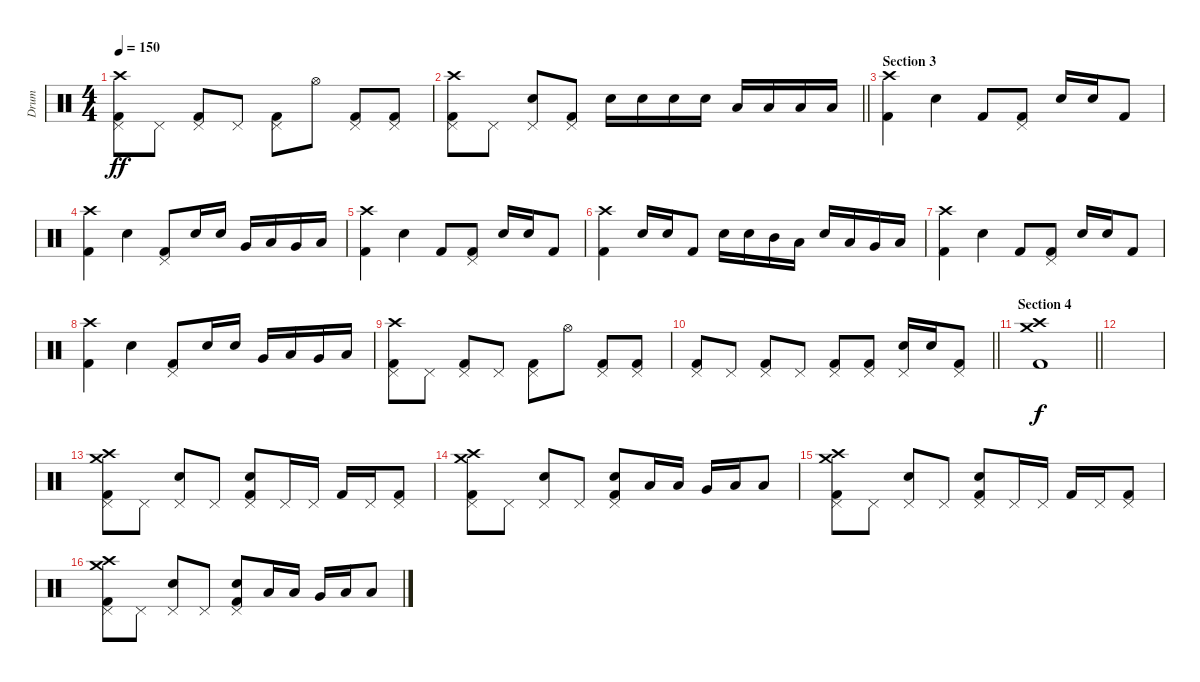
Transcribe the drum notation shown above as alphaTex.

\track ("Drum" "Drum") {instrument percussion}
\staff {score}
\articulation defaults
\ts (4 4)
\tempo 150
\clef neutral
\ks c
("Pedal Hi-Hat (hit)" "Kick (hit) 2" "Crash high (hit)").8{dy ff} "Pedal Hi-Hat (hit)".8 ("Pedal Hi-Hat (hit)" "Kick (hit) 2").8 "Pedal Hi-Hat (hit)".8 ("Pedal Hi-Hat (hit)" "Kick (hit) 2").8 "Hi-Hat (open)".8 ("Pedal Hi-Hat (hit)" "Kick (hit) 2").8 ("Pedal Hi-Hat (hit)" "Kick (hit) 2").8 |
\barLineRight lightlight
("Pedal Hi-Hat (hit)" "Kick (hit) 2" "Crash high (hit)").8 "Pedal Hi-Hat (hit)".8 ("Pedal Hi-Hat (hit)" "Electric Snare (hit)").8 ("Pedal Hi-Hat (hit)" "Kick (hit) 2").8 "Electric Snare (hit)".16 "Electric Snare (hit)".16 "Electric Snare (hit)".16 "Electric Snare (hit)".16 "Low Floor Tom (hit)".16 "Low Floor Tom (hit)".16 "Low Floor Tom (hit)".16 "Low Floor Tom (hit)".16 |
\section ("" "Section 3")
("Kick (hit) 2" "Crash high (hit)").4 "Electric Snare (hit)".4 "Kick (hit) 2".8 ("Kick (hit) 2" "Pedal Hi-Hat (hit)").8 "Electric Snare (hit)".16 "Snare (hit) 2".16 "Kick (hit) 2".8 |
("Kick (hit) 2" "Crash high (hit)").4 "Electric Snare (hit)".4 ("Kick (hit) 2" "Pedal Hi-Hat (hit)").8 "Electric Snare (hit)".16 "Snare (hit) 2".16 "Very Low Tom (hit)".16 "Low Tom (hit)".16 "Very Low Tom (hit)".16 "Low Floor Tom (hit)".16 |
("Kick (hit) 2" "Crash high (hit)").4 "Electric Snare (hit)".4 "Kick (hit) 2".8 ("Kick (hit) 2" "Pedal Hi-Hat (hit)").8 "Electric Snare (hit)".16 "Snare (hit) 2".16 "Kick (hit) 2".8 |
("Kick (hit) 2" "Crash high (hit)").4 "Electric Snare (hit)".16 "Electric Snare (hit)".16 "Kick (hit) 2".8 "Electric Snare (hit)".16 "Electric Snare (hit)".16 "Mid Tom (hit)".16 "Low Tom (hit)".16 "Electric Snare (hit)".16 "Low Tom (hit)".16 "Very Low Tom (hit)".16 "Low Floor Tom (hit)".16 |
("Kick (hit) 2" "Crash high (hit)").4 "Electric Snare (hit)".4 "Kick (hit) 2".8 ("Kick (hit) 2" "Pedal Hi-Hat (hit)").8 "Electric Snare (hit)".16 "Snare (hit) 2".16 "Kick (hit) 2".8 |
("Kick (hit) 2" "Crash high (hit)").4 "Electric Snare (hit)".4 ("Kick (hit) 2" "Pedal Hi-Hat (hit)").8 "Electric Snare (hit)".16 "Snare (hit) 2".16 "Very Low Tom (hit)".16 "Low Tom (hit)".16 "Very Low Tom (hit)".16 "Low Floor Tom (hit)".16 |
("Pedal Hi-Hat (hit)" "Kick (hit) 2" "Crash high (hit)").8 "Pedal Hi-Hat (hit)".8 ("Pedal Hi-Hat (hit)" "Kick (hit) 2").8 "Pedal Hi-Hat (hit)".8 ("Pedal Hi-Hat (hit)" "Kick (hit) 2").8 "Hi-Hat (open)".8 ("Pedal Hi-Hat (hit)" "Kick (hit) 2").8 ("Pedal Hi-Hat (hit)" "Kick (hit) 2").8 |
\barLineRight lightlight
("Pedal Hi-Hat (hit)" "Kick (hit) 2").8 "Pedal Hi-Hat (hit)".8 ("Pedal Hi-Hat (hit)" "Kick (hit) 2").8 "Pedal Hi-Hat (hit)".8 ("Pedal Hi-Hat (hit)" "Kick (hit) 2").8 ("Kick (hit) 2" "Pedal Hi-Hat (hit)").8 ("Electric Snare (hit)" "Pedal Hi-Hat (hit)").16 "Electric Snare (hit)".16 ("Kick (hit) 2" "Pedal Hi-Hat (hit)").8 |
\section ("" "Section 4")
\barLineRight lightlight
("Crash high (hit)" "Crash medium (hit)" "Kick (hit) 2").1{dy f} |
|
("Pedal Hi-Hat (hit)" "Kick (hit) 2" "Crash high (hit)" "Crash medium (hit)").8 "Pedal Hi-Hat (hit)".8 ("Pedal Hi-Hat (hit)" "Electric Snare (hit)").8 "Pedal Hi-Hat (hit)".8 ("Pedal Hi-Hat (hit)" "Electric Snare (hit)" "Kick (hit) 2").8 "Pedal Hi-Hat (hit)".16 "Pedal Hi-Hat (hit)".16 "Kick (hit) 2".16 "Pedal Hi-Hat (hit)".16 ("Pedal Hi-Hat (hit)" "Kick (hit) 2").8 |
("Pedal Hi-Hat (hit)" "Kick (hit) 2" "Crash high (hit)" "Crash medium (hit)").8 "Pedal Hi-Hat (hit)".8 ("Pedal Hi-Hat (hit)" "Electric Snare (hit)").8 "Pedal Hi-Hat (hit)".8 ("Pedal Hi-Hat (hit)" "Electric Snare (hit)" "Kick (hit) 2").8 "Low Tom (hit)".16 "Low Tom (hit)".16 "Very Low Tom (hit)".16 "Low Floor Tom (hit)".16 "Low Floor Tom (hit)".8 |
("Pedal Hi-Hat (hit)" "Kick (hit) 2" "Crash high (hit)" "Crash medium (hit)").8 "Pedal Hi-Hat (hit)".8 ("Pedal Hi-Hat (hit)" "Electric Snare (hit)").8 "Pedal Hi-Hat (hit)".8 ("Pedal Hi-Hat (hit)" "Electric Snare (hit)" "Kick (hit) 2").8 "Pedal Hi-Hat (hit)".16 "Pedal Hi-Hat (hit)".16 "Kick (hit) 2".16 "Pedal Hi-Hat (hit)".16 ("Pedal Hi-Hat (hit)" "Kick (hit) 2").8 |
("Pedal Hi-Hat (hit)" "Kick (hit) 2" "Crash high (hit)" "Crash medium (hit)").8 "Pedal Hi-Hat (hit)".8 ("Pedal Hi-Hat (hit)" "Electric Snare (hit)").8 "Pedal Hi-Hat (hit)".8 ("Pedal Hi-Hat (hit)" "Electric Snare (hit)" "Kick (hit) 2").8 "Low Tom (hit)".16 "Low Tom (hit)".16 "Very Low Tom (hit)".16 "Low Floor Tom (hit)".16 "Low Floor Tom (hit)".8
